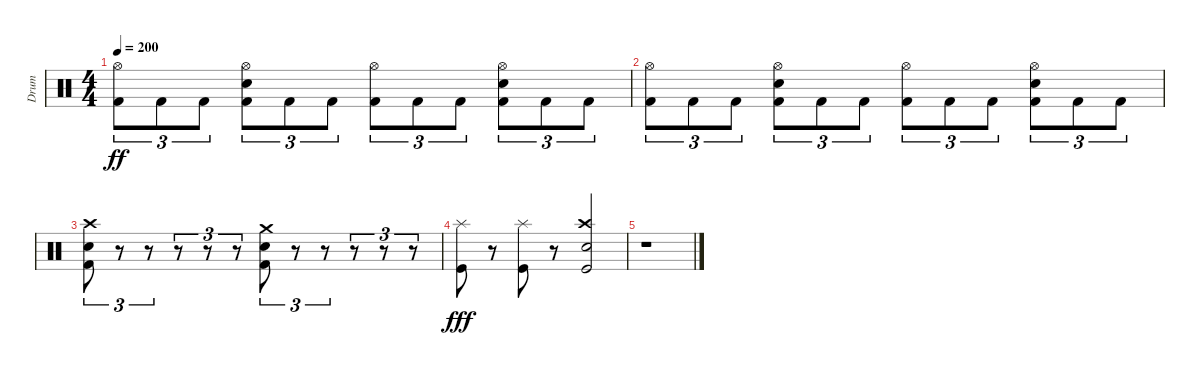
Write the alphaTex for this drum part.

\track ("Drum" "Drum") {instrument percussion}
\staff {score}
\articulation defaults
\ts (4 4)
\tempo 200
\clef neutral
\ks c
("Hi-Hat (open)" "Kick (hit) 2").8{tu (3 2) dy ff} "Kick (hit) 2".8{tu (3 2)} "Kick (hit) 2".8{tu (3 2)} ("Hi-Hat (open)" "Snare (hit) 2" "Kick (hit) 2").8{tu (3 2)} "Kick (hit) 2".8{tu (3 2)} "Kick (hit) 2".8{tu (3 2)} ("Hi-Hat (open)" "Kick (hit) 2").8{tu (3 2)} "Kick (hit) 2".8{tu (3 2)} "Kick (hit) 2".8{tu (3 2)} ("Hi-Hat (open)" "Snare (hit) 2" "Kick (hit) 2").8{tu (3 2)} "Kick (hit) 2".8{tu (3 2)} "Kick (hit) 2".8{tu (3 2)} |
("Hi-Hat (open)" "Kick (hit) 2").8{tu (3 2)} "Kick (hit) 2".8{tu (3 2)} "Kick (hit) 2".8{tu (3 2)} ("Hi-Hat (open)" "Snare (hit) 2" "Kick (hit) 2").8{tu (3 2)} "Kick (hit) 2".8{tu (3 2)} "Kick (hit) 2".8{tu (3 2)} ("Hi-Hat (open)" "Kick (hit) 2").8{tu (3 2)} "Kick (hit) 2".8{tu (3 2)} "Kick (hit) 2".8{tu (3 2)} ("Hi-Hat (open)" "Snare (hit) 2" "Kick (hit) 2").8{tu (3 2)} "Kick (hit) 2".8{tu (3 2)} "Kick (hit) 2".8{tu (3 2)} |
("Snare (hit) 2" "Crash high (hit)" "Kick (hit) 2").8{tu (3 2)} r.8{tu (3 2)} r.8{tu (3 2)} r.8{tu (3 2)} r.8{tu (3 2)} r.8{tu (3 2)} ("Snare (hit) 2" "Crash medium (hit)" "Kick (hit) 2").8{tu (3 2)} r.8{tu (3 2)} r.8{tu (3 2)} r.8{tu (3 2)} r.8{tu (3 2)} r.8{tu (3 2)} |
("Splash (hit)" "Kick (hit)").8{dy fff} r.8 ("Splash (hit)" "Kick (hit)").8 r.8 ("Crash high (hit)" "Snare (hit) 2" "Kick (hit)").2 |
r.1
